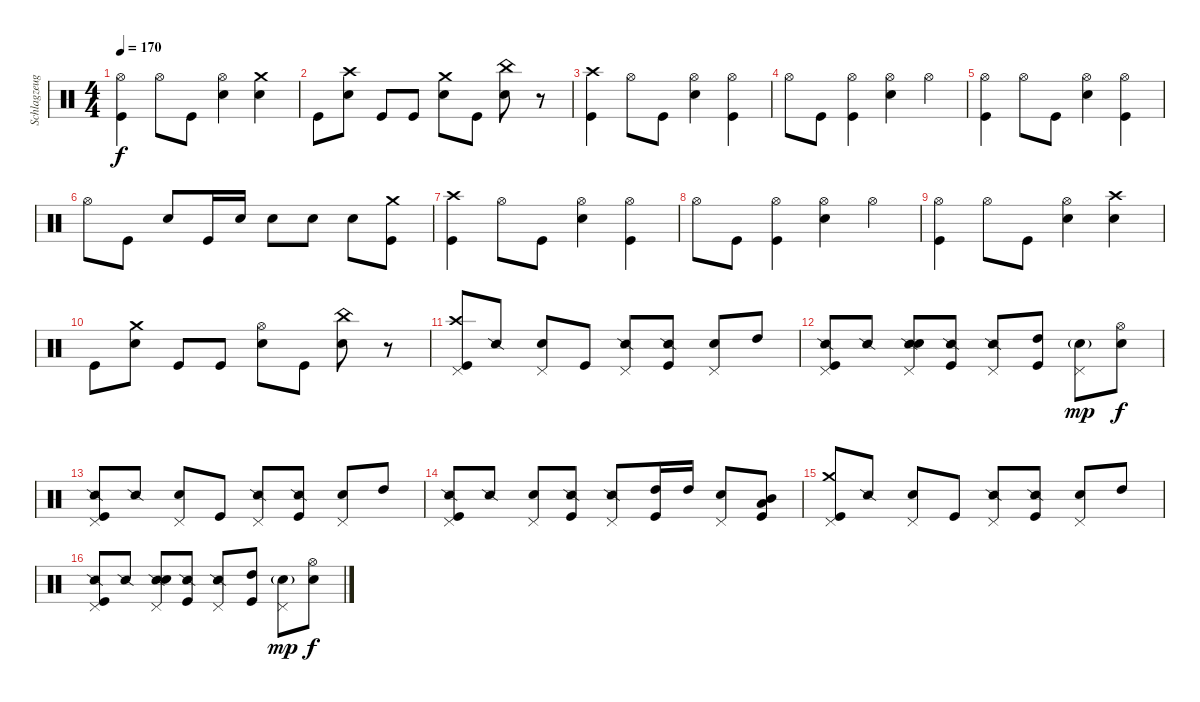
\track ("Schlagzeug" "Schlagzeug") {instrument percussion}
\staff {score}
\articulation defaults
\ts (4 4)
\tempo 170
\clef neutral
\ks c
("Hi-Hat (open)" "Kick (hit)").4{dy f} "Hi-Hat (open)".8 "Kick (hit)".8 ("Hi-Hat (open)" "Electric Snare (hit)").4 ("Crash medium (hit)" "Electric Snare (hit)").4 |
"Kick (hit)".8 ("Crash high (hit)" "Electric Snare (hit)").8 "Kick (hit)".8 "Kick (hit)".8 ("Crash medium (hit)" "Electric Snare (hit)").8 "Kick (hit)".8 ("China (hit)" "Electric Snare (hit)").8 r.8 |
("Crash high (hit)" "Kick (hit)").4 "Hi-Hat (open)".8 "Kick (hit)".8 ("Hi-Hat (open)" "Electric Snare (hit)").4 ("Hi-Hat (open)" "Kick (hit)").4 |
"Hi-Hat (open)".8 "Kick (hit)".8 ("Hi-Hat (open)" "Kick (hit)").4 ("Hi-Hat (open)" "Electric Snare (hit)").4 "Hi-Hat (open)".4 |
("Hi-Hat (open)" "Kick (hit)").4 "Hi-Hat (open)".8 "Kick (hit)".8 ("Hi-Hat (open)" "Electric Snare (hit)").4 ("Hi-Hat (open)" "Kick (hit)").4 |
"Hi-Hat (open)".8 "Kick (hit)".8 "Electric Snare (hit)".8 "Kick (hit)".16 "Electric Snare (hit)".16 "Electric Snare (hit)".8 "Electric Snare (hit)".8 "Electric Snare (hit)".8 ("Crash medium (hit)" "Kick (hit)").8 |
("Crash high (hit)" "Kick (hit)").4 "Hi-Hat (open)".8 "Kick (hit)".8 ("Hi-Hat (open)" "Electric Snare (hit)").4 ("Hi-Hat (open)" "Kick (hit)").4 |
"Hi-Hat (open)".8 "Kick (hit)".8 ("Hi-Hat (open)" "Kick (hit)").4 ("Hi-Hat (open)" "Electric Snare (hit)").4 "Hi-Hat (open)".4 |
("Hi-Hat (open)" "Kick (hit)").4 "Hi-Hat (open)".8 "Kick (hit)".8 ("Hi-Hat (open)" "Electric Snare (hit)").4 ("Crash high (hit)" "Electric Snare (hit)").4 |
"Kick (hit)".8 ("Crash medium (hit)" "Electric Snare (hit)").8 "Kick (hit)".8 "Kick (hit)".8 ("Hi-Hat (open)" "Electric Snare (hit)").8 "Kick (hit)".8 ("China (hit)" "Electric Snare (hit)").8 r.8 |
("Crash high (hit)" "Pedal Hi-Hat (hit)" "Kick (hit)").8 "Snare (side stick) 2".8 ("Electric Snare (hit)" "Pedal Hi-Hat (hit)").8 "Kick (hit)".8 ("Snare (side stick) 2" "Pedal Hi-Hat (hit)").8 ("Snare (side stick) 2" "Kick (hit)").8 ("Electric Snare (hit)" "Pedal Hi-Hat (hit)").8 "High Tom (hit)".8 |
("Snare (side stick) 2" "Pedal Hi-Hat (hit)" "Kick (hit)").8 "Snare (side stick) 2".8 ("Snare (side stick) 2" "Electric Snare (hit)" "Pedal Hi-Hat (hit)").8 ("Snare (side stick) 2" "Kick (hit)").8 ("Snare (side stick) 2" "Pedal Hi-Hat (hit)").8 ("High Tom (hit)" "Kick (hit)").8 ("Electric Snare (hit)"{g} "Pedal Hi-Hat (hit)").8{dy mp} ("Hi-Hat (open)" "Electric Snare (hit)").8{dy f} |
("Snare (side stick) 2" "Pedal Hi-Hat (hit)" "Kick (hit)").8 "Snare (side stick) 2".8 ("Electric Snare (hit)" "Pedal Hi-Hat (hit)").8 "Kick (hit)".8 ("Snare (side stick) 2" "Pedal Hi-Hat (hit)").8 ("Snare (side stick) 2" "Kick (hit)").8 ("Electric Snare (hit)" "Pedal Hi-Hat (hit)").8 "High Tom (hit)".8 |
("Snare (side stick) 2" "Pedal Hi-Hat (hit)" "Kick (hit)").8 "Snare (side stick) 2".8 ("Electric Snare (hit)" "Pedal Hi-Hat (hit)").8 ("Snare (side stick) 2" "Kick (hit)").8 ("Snare (side stick) 2" "Pedal Hi-Hat (hit)").8 ("High Tom (hit)" "Kick (hit)").16 "High Tom (hit)".16 ("Electric Snare (hit)" "Pedal Hi-Hat (hit)").8 ("Mid Tom (hit)" "Low Tom (hit)" "Kick (hit)").8 |
("Crash medium (hit)" "Pedal Hi-Hat (hit)" "Kick (hit)").8 "Snare (side stick) 2".8 ("Electric Snare (hit)" "Pedal Hi-Hat (hit)").8 "Kick (hit)".8 ("Snare (side stick) 2" "Pedal Hi-Hat (hit)").8 ("Snare (side stick) 2" "Kick (hit)").8 ("Electric Snare (hit)" "Pedal Hi-Hat (hit)").8 "High Tom (hit)".8 |
("Snare (side stick) 2" "Pedal Hi-Hat (hit)" "Kick (hit)").8 "Snare (side stick) 2".8 ("Snare (side stick) 2" "Electric Snare (hit)" "Pedal Hi-Hat (hit)").8 ("Snare (side stick) 2" "Kick (hit)").8 ("Snare (side stick) 2" "Pedal Hi-Hat (hit)").8 ("High Tom (hit)" "Kick (hit)").8 ("Electric Snare (hit)"{g} "Pedal Hi-Hat (hit)").8{dy mp} ("Hi-Hat (open)" "Electric Snare (hit)").8{dy f}
